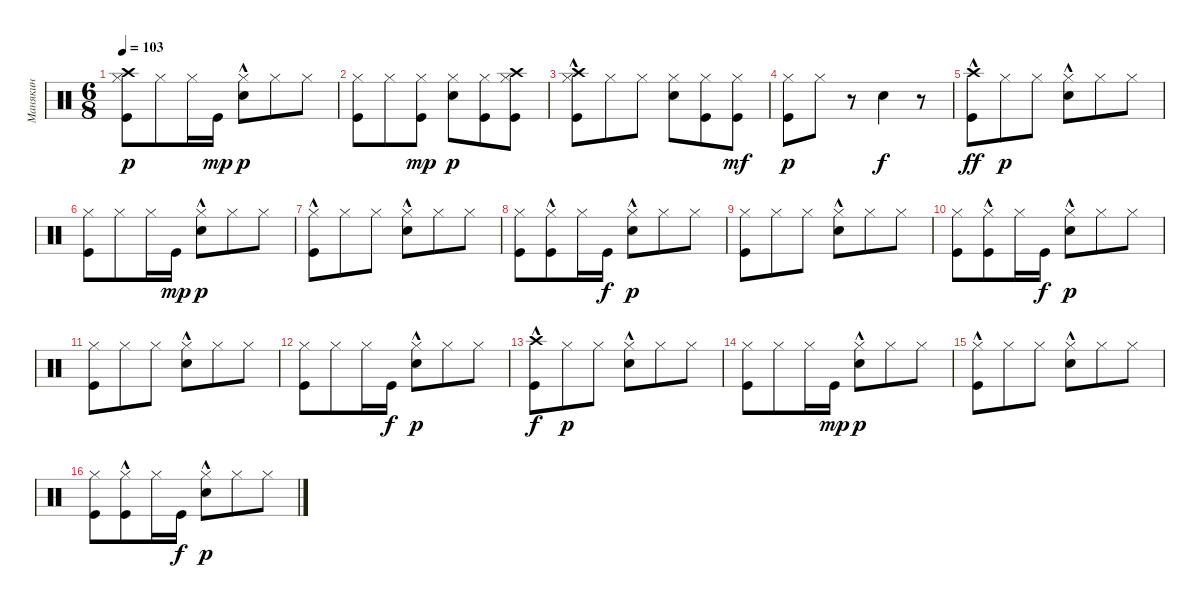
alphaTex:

\track ("Манякин" "Манякин") {instrument percussion}
\staff {score}
\articulation defaults
\ts (6 8)
\tempo 103
\clef neutral
\ks c
("Crash high (hit)" "Hi-Hat (closed)" "Kick (hit)").8{dy p} "Hi-Hat (closed)".8 "Hi-Hat (closed)".16 "Kick (hit)".16{dy mp} ("Hi-Hat (closed)" "Electric Snare (hit)"{hac}).8{dy p} "Hi-Hat (closed)".8 "Hi-Hat (closed)".8 |
("Hi-Hat (closed)" "Kick (hit)").8 "Hi-Hat (closed)".8 ("Hi-Hat (closed)" "Kick (hit)").8{dy mp} ("Hi-Hat (closed)" "Electric Snare (hit)").8{dy p} ("Hi-Hat (closed)" "Kick (hit)").8 ("Crash high (hit)" "Hi-Hat (closed)" "Kick (hit)").8 |
("Crash high (hit)" "Hi-Hat (closed)" "Kick (hit)"{hac}).8 "Hi-Hat (closed)".8 "Hi-Hat (closed)".8 ("Hi-Hat (closed)" "Electric Snare (hit)").8 ("Hi-Hat (closed)" "Kick (hit)").8 ("Hi-Hat (closed)" "Kick (hit)").8{dy mf} |
("Hi-Hat (closed)" "Kick (hit)").8{dy p} "Hi-Hat (closed)".8 r.8 "Electric Snare (hit)".4{dy f} r.8 |
("Crash high (hit)"{hac} "Kick (hit)"{hac}).8{dy ff} "Hi-Hat (closed)".8{dy p} "Hi-Hat (closed)".8 ("Electric Snare (hit)"{hac} "Hi-Hat (closed)").8 "Hi-Hat (closed)".8 "Hi-Hat (closed)".8 |
("Kick (hit)" "Hi-Hat (closed)").8 "Hi-Hat (closed)".8 "Hi-Hat (closed)".16 "Kick (hit)".16{dy mp} ("Electric Snare (hit)"{hac} "Hi-Hat (closed)").8{dy p} "Hi-Hat (closed)".8 "Hi-Hat (closed)".8 |
("Kick (hit)"{hac} "Hi-Hat (closed)").8 "Hi-Hat (closed)".8 "Hi-Hat (closed)".8 ("Electric Snare (hit)"{hac} "Hi-Hat (closed)").8 "Hi-Hat (closed)".8 "Hi-Hat (closed)".8 |
("Kick (hit)" "Hi-Hat (closed)").8 ("Kick (hit)"{hac} "Hi-Hat (closed)").8 "Hi-Hat (closed)".16 "Kick (hit)".16{dy f} ("Electric Snare (hit)"{hac} "Hi-Hat (closed)").8{dy p} "Hi-Hat (closed)".8 "Hi-Hat (closed)".8 |
("Kick (hit)" "Hi-Hat (closed)").8 "Hi-Hat (closed)".8 "Hi-Hat (closed)".8 ("Electric Snare (hit)"{hac} "Hi-Hat (closed)").8 "Hi-Hat (closed)".8 "Hi-Hat (closed)".8 |
("Hi-Hat (closed)" "Kick (hit)").8 ("Hi-Hat (closed)" "Kick (hit)"{hac}).8 "Hi-Hat (closed)".16 "Kick (hit)".16{dy f} ("Hi-Hat (closed)" "Electric Snare (hit)"{hac}).8{dy p} "Hi-Hat (closed)".8 "Hi-Hat (closed)".8 |
("Hi-Hat (closed)" "Kick (hit)").8 "Hi-Hat (closed)".8 "Hi-Hat (closed)".8 ("Hi-Hat (closed)" "Electric Snare (hit)"{hac}).8 "Hi-Hat (closed)".8 "Hi-Hat (closed)".8 |
("Hi-Hat (closed)" "Kick (hit)").8 "Hi-Hat (closed)".8 "Hi-Hat (closed)".16 "Kick (hit)".16{dy f} ("Hi-Hat (closed)" "Electric Snare (hit)"{hac}).8{dy p} "Hi-Hat (closed)".8 "Hi-Hat (closed)".8 |
("Crash high (hit)"{hac} "Kick (hit)"{hac}).8{dy f} "Hi-Hat (closed)".8{dy p} "Hi-Hat (closed)".8 ("Electric Snare (hit)"{hac} "Hi-Hat (closed)").8 "Hi-Hat (closed)".8 "Hi-Hat (closed)".8 |
("Kick (hit)" "Hi-Hat (closed)").8 "Hi-Hat (closed)".8 "Hi-Hat (closed)".16 "Kick (hit)".16{dy mp} ("Electric Snare (hit)"{hac} "Hi-Hat (closed)").8{dy p} "Hi-Hat (closed)".8 "Hi-Hat (closed)".8 |
("Kick (hit)"{hac} "Hi-Hat (closed)").8 "Hi-Hat (closed)".8 "Hi-Hat (closed)".8 ("Electric Snare (hit)"{hac} "Hi-Hat (closed)").8 "Hi-Hat (closed)".8 "Hi-Hat (closed)".8 |
("Kick (hit)" "Hi-Hat (closed)").8 ("Kick (hit)"{hac} "Hi-Hat (closed)").8 "Hi-Hat (closed)".16 "Kick (hit)".16{dy f} ("Electric Snare (hit)"{hac} "Hi-Hat (closed)").8{dy p} "Hi-Hat (closed)".8 "Hi-Hat (closed)".8
